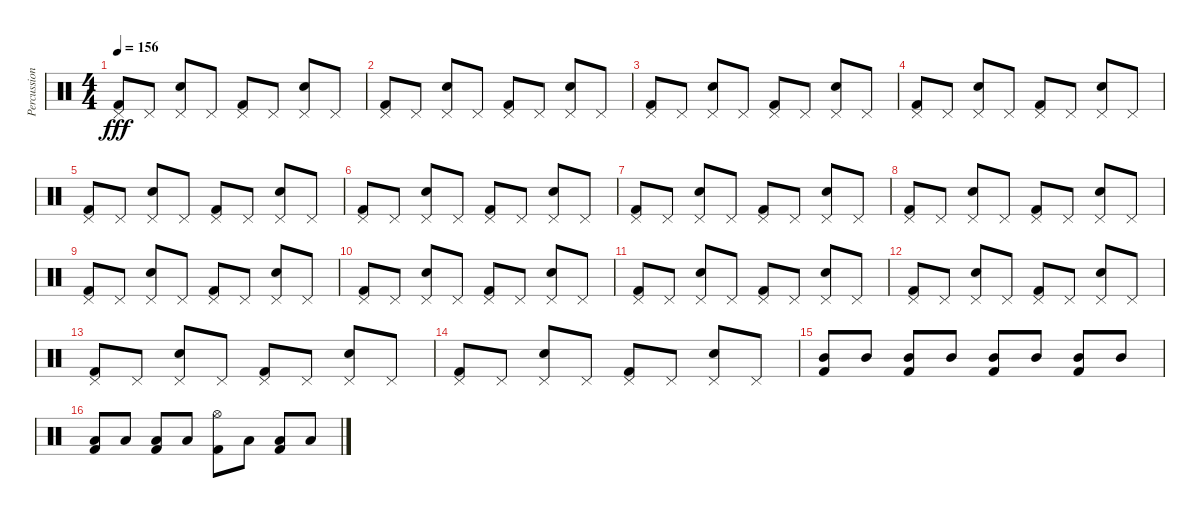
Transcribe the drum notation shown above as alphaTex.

\track ("Percussion" "Percussion") {instrument percussion}
\staff {score}
\articulation defaults
\ts (4 4)
\tempo 156
\clef neutral
\ks c
("Pedal Hi-Hat (hit)" "Kick (hit) 2").8{dy fff} "Pedal Hi-Hat (hit)".8 ("Pedal Hi-Hat (hit)" "Electric Snare (hit)").8 "Pedal Hi-Hat (hit)".8 ("Pedal Hi-Hat (hit)" "Kick (hit) 2").8 "Pedal Hi-Hat (hit)".8 ("Pedal Hi-Hat (hit)" "Electric Snare (hit)").8 "Pedal Hi-Hat (hit)".8 |
("Pedal Hi-Hat (hit)" "Kick (hit) 2").8 "Pedal Hi-Hat (hit)".8 ("Pedal Hi-Hat (hit)" "Electric Snare (hit)").8 "Pedal Hi-Hat (hit)".8 ("Pedal Hi-Hat (hit)" "Kick (hit) 2").8 "Pedal Hi-Hat (hit)".8 ("Pedal Hi-Hat (hit)" "Electric Snare (hit)").8 "Pedal Hi-Hat (hit)".8 |
("Pedal Hi-Hat (hit)" "Kick (hit) 2").8 "Pedal Hi-Hat (hit)".8 ("Pedal Hi-Hat (hit)" "Electric Snare (hit)").8 "Pedal Hi-Hat (hit)".8 ("Pedal Hi-Hat (hit)" "Kick (hit) 2").8 "Pedal Hi-Hat (hit)".8 ("Pedal Hi-Hat (hit)" "Electric Snare (hit)").8 "Pedal Hi-Hat (hit)".8 |
("Pedal Hi-Hat (hit)" "Kick (hit) 2").8 "Pedal Hi-Hat (hit)".8 ("Pedal Hi-Hat (hit)" "Electric Snare (hit)").8 "Pedal Hi-Hat (hit)".8 ("Pedal Hi-Hat (hit)" "Kick (hit) 2").8 "Pedal Hi-Hat (hit)".8 ("Pedal Hi-Hat (hit)" "Electric Snare (hit)").8 "Pedal Hi-Hat (hit)".8 |
("Pedal Hi-Hat (hit)" "Kick (hit) 2").8 "Pedal Hi-Hat (hit)".8 ("Pedal Hi-Hat (hit)" "Electric Snare (hit)").8 "Pedal Hi-Hat (hit)".8 ("Pedal Hi-Hat (hit)" "Kick (hit) 2").8 "Pedal Hi-Hat (hit)".8 ("Pedal Hi-Hat (hit)" "Electric Snare (hit)").8 "Pedal Hi-Hat (hit)".8 |
("Pedal Hi-Hat (hit)" "Kick (hit) 2").8 "Pedal Hi-Hat (hit)".8 ("Pedal Hi-Hat (hit)" "Electric Snare (hit)").8 "Pedal Hi-Hat (hit)".8 ("Pedal Hi-Hat (hit)" "Kick (hit) 2").8 "Pedal Hi-Hat (hit)".8 ("Pedal Hi-Hat (hit)" "Electric Snare (hit)").8 "Pedal Hi-Hat (hit)".8 |
("Pedal Hi-Hat (hit)" "Kick (hit) 2").8 "Pedal Hi-Hat (hit)".8 ("Pedal Hi-Hat (hit)" "Electric Snare (hit)").8 "Pedal Hi-Hat (hit)".8 ("Pedal Hi-Hat (hit)" "Kick (hit) 2").8 "Pedal Hi-Hat (hit)".8 ("Pedal Hi-Hat (hit)" "Electric Snare (hit)").8 "Pedal Hi-Hat (hit)".8 |
("Pedal Hi-Hat (hit)" "Kick (hit) 2").8 "Pedal Hi-Hat (hit)".8 ("Pedal Hi-Hat (hit)" "Electric Snare (hit)").8 "Pedal Hi-Hat (hit)".8 ("Pedal Hi-Hat (hit)" "Kick (hit) 2").8 "Pedal Hi-Hat (hit)".8 ("Pedal Hi-Hat (hit)" "Electric Snare (hit)").8 "Pedal Hi-Hat (hit)".8 |
("Pedal Hi-Hat (hit)" "Kick (hit) 2").8 "Pedal Hi-Hat (hit)".8 ("Pedal Hi-Hat (hit)" "Electric Snare (hit)").8 "Pedal Hi-Hat (hit)".8 ("Pedal Hi-Hat (hit)" "Kick (hit) 2").8 "Pedal Hi-Hat (hit)".8 ("Pedal Hi-Hat (hit)" "Electric Snare (hit)").8 "Pedal Hi-Hat (hit)".8 |
("Pedal Hi-Hat (hit)" "Kick (hit) 2").8 "Pedal Hi-Hat (hit)".8 ("Pedal Hi-Hat (hit)" "Electric Snare (hit)").8 "Pedal Hi-Hat (hit)".8 ("Pedal Hi-Hat (hit)" "Kick (hit) 2").8 "Pedal Hi-Hat (hit)".8 ("Pedal Hi-Hat (hit)" "Electric Snare (hit)").8 "Pedal Hi-Hat (hit)".8 |
("Pedal Hi-Hat (hit)" "Kick (hit) 2").8 "Pedal Hi-Hat (hit)".8 ("Pedal Hi-Hat (hit)" "Electric Snare (hit)").8 "Pedal Hi-Hat (hit)".8 ("Pedal Hi-Hat (hit)" "Kick (hit) 2").8 "Pedal Hi-Hat (hit)".8 ("Pedal Hi-Hat (hit)" "Electric Snare (hit)").8 "Pedal Hi-Hat (hit)".8 |
("Pedal Hi-Hat (hit)" "Kick (hit) 2").8 "Pedal Hi-Hat (hit)".8 ("Pedal Hi-Hat (hit)" "Electric Snare (hit)").8 "Pedal Hi-Hat (hit)".8 ("Pedal Hi-Hat (hit)" "Kick (hit) 2").8 "Pedal Hi-Hat (hit)".8 ("Pedal Hi-Hat (hit)" "Electric Snare (hit)").8 "Pedal Hi-Hat (hit)".8 |
("Pedal Hi-Hat (hit)" "Kick (hit) 2").8 "Pedal Hi-Hat (hit)".8 ("Pedal Hi-Hat (hit)" "Electric Snare (hit)").8 "Pedal Hi-Hat (hit)".8 ("Pedal Hi-Hat (hit)" "Kick (hit) 2").8 "Pedal Hi-Hat (hit)".8 ("Pedal Hi-Hat (hit)" "Electric Snare (hit)").8 "Pedal Hi-Hat (hit)".8 |
("Pedal Hi-Hat (hit)" "Kick (hit) 2").8 "Pedal Hi-Hat (hit)".8 ("Pedal Hi-Hat (hit)" "Electric Snare (hit)").8 "Pedal Hi-Hat (hit)".8 ("Pedal Hi-Hat (hit)" "Kick (hit) 2").8 "Pedal Hi-Hat (hit)".8 ("Pedal Hi-Hat (hit)" "Electric Snare (hit)").8 "Pedal Hi-Hat (hit)".8 |
("Mid Tom (hit)" "Kick (hit) 2").8 "Mid Tom (hit)".8 ("Mid Tom (hit)" "Kick (hit) 2").8 "Mid Tom (hit)".8 ("Mid Tom (hit)" "Kick (hit) 2").8 "Mid Tom (hit)".8 ("Mid Tom (hit)" "Kick (hit) 2").8 "Mid Tom (hit)".8 |
("Low Tom (hit)" "Kick (hit) 2").8 "Low Tom (hit)".8 ("Low Tom (hit)" "Kick (hit) 2").8 "Low Tom (hit)".8 ("Hi-Hat (open)" "Kick (hit) 2").8 "Low Tom (hit)".8 ("Low Tom (hit)" "Kick (hit) 2").8 "Low Tom (hit)".8
